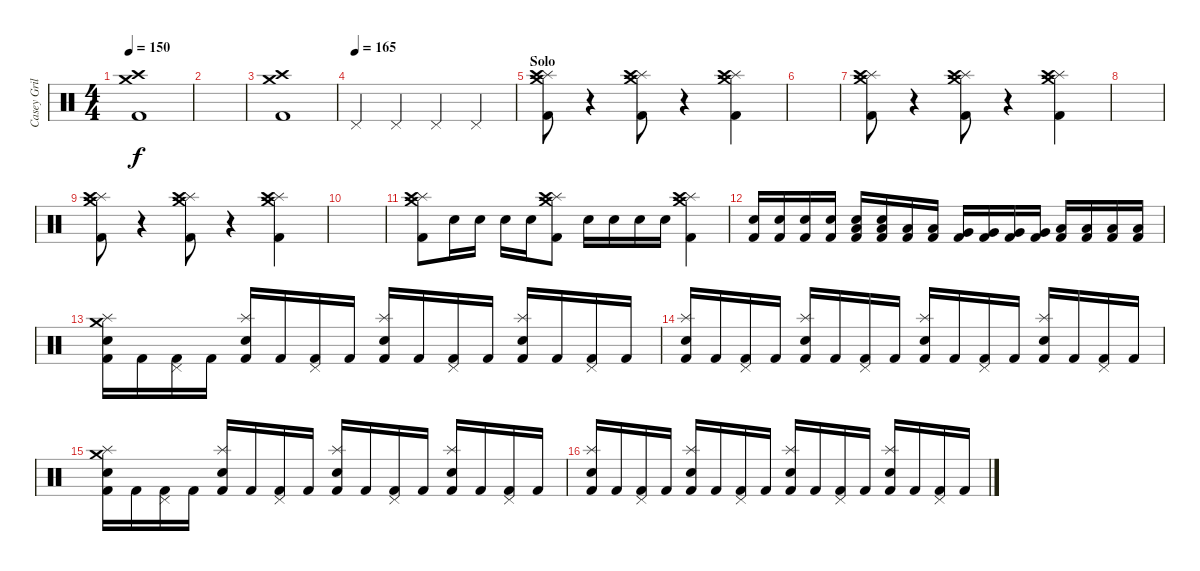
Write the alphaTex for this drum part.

\track ("Casey Grillo" "Casey Gril") {instrument percussion}
\staff {score}
\articulation defaults
\ts (4 4)
\tempo 150
\clef neutral
\ks c
("Crash high (hit)" "Crash medium (hit)" "Kick (hit) 2").1{dy f} |
|
("Crash high (hit)" "Crash medium (hit)" "Kick (hit) 2").1 |
\tempo (165)
"Pedal Hi-Hat (hit)".4 "Pedal Hi-Hat (hit)".4 "Pedal Hi-Hat (hit)".4 "Pedal Hi-Hat (hit)".4 |
\section ("" "Solo")
("Splash (hit)" "Crash high (hit)" "Crash medium (hit)" "Kick (hit) 2").8 r.4 ("Splash (hit)" "Crash high (hit)" "Crash medium (hit)" "Kick (hit) 2").8 r.4 ("Splash (hit)" "Crash high (hit)" "Crash medium (hit)" "Kick (hit) 2").4 |
|
("Splash (hit)" "Crash high (hit)" "Crash medium (hit)" "Kick (hit) 2").8 r.4 ("Splash (hit)" "Crash high (hit)" "Crash medium (hit)" "Kick (hit) 2").8 r.4 ("Splash (hit)" "Crash high (hit)" "Crash medium (hit)" "Kick (hit) 2").4 |
|
("Splash (hit)" "Crash high (hit)" "Crash medium (hit)" "Kick (hit) 2").8 r.4 ("Splash (hit)" "Crash high (hit)" "Crash medium (hit)" "Kick (hit) 2").8 r.4 ("Splash (hit)" "Crash high (hit)" "Crash medium (hit)" "Kick (hit) 2").4 |
|
("Splash (hit)" "Crash high (hit)" "Crash medium (hit)" "Kick (hit) 2").8 "Electric Snare (hit)".16 "Electric Snare (hit)".16 "Electric Snare (hit)".16 "Electric Snare (hit)".16 ("Splash (hit)" "Crash high (hit)" "Crash medium (hit)" "Kick (hit) 2").8 "Electric Snare (hit)".16 "Electric Snare (hit)".16 "Electric Snare (hit)".16 "Electric Snare (hit)".16 ("Splash (hit)" "Crash high (hit)" "Crash medium (hit)" "Kick (hit) 2").4 |
("Electric Snare (hit)" "Kick (hit) 2").16 ("Electric Snare (hit)" "Kick (hit) 2").16 ("Electric Snare (hit)" "Kick (hit) 2").16 ("Electric Snare (hit)" "Kick (hit) 2").16 ("Electric Snare (hit)" "Low Tom (hit)" "Kick (hit) 2").16 ("Electric Snare (hit)" "Low Tom (hit)" "Kick (hit) 2").16 ("Low Tom (hit)" "Kick (hit) 2").16 ("Low Tom (hit)" "Kick (hit) 2").16 ("Very Low Tom (hit)" "Kick (hit) 2").16 ("Very Low Tom (hit)" "Kick (hit) 2").16 ("Very Low Tom (hit)" "Kick (hit) 2").16 ("Very Low Tom (hit)" "Kick (hit) 2").16 ("Low Floor Tom (hit)" "Kick (hit) 2").16 ("Low Floor Tom (hit)" "Kick (hit) 2").16 ("Low Floor Tom (hit)" "Kick (hit) 2").16 ("Low Floor Tom (hit)" "Kick (hit) 2").16 |
("Electric Snare (hit)" "Splash (hit)" "Crash medium (hit)" "Kick (hit) 2").16 "Kick (hit) 2".16 ("Pedal Hi-Hat (hit)" "Kick (hit) 2").16 "Kick (hit) 2".16 ("Electric Snare (hit)" "Splash (hit)" "Kick (hit) 2").16 "Kick (hit) 2".16 ("Pedal Hi-Hat (hit)" "Kick (hit) 2").16 "Kick (hit) 2".16 ("Electric Snare (hit)" "Splash (hit)" "Kick (hit) 2").16 "Kick (hit) 2".16 ("Pedal Hi-Hat (hit)" "Kick (hit) 2").16 "Kick (hit) 2".16 ("Electric Snare (hit)" "Splash (hit)" "Kick (hit) 2").16 "Kick (hit) 2".16 ("Pedal Hi-Hat (hit)" "Kick (hit) 2").16 "Kick (hit) 2".16 |
("Electric Snare (hit)" "Splash (hit)" "Kick (hit) 2").16 "Kick (hit) 2".16 ("Pedal Hi-Hat (hit)" "Kick (hit) 2").16 "Kick (hit) 2".16 ("Electric Snare (hit)" "Splash (hit)" "Kick (hit) 2").16 "Kick (hit) 2".16 ("Pedal Hi-Hat (hit)" "Kick (hit) 2").16 "Kick (hit) 2".16 ("Electric Snare (hit)" "Splash (hit)" "Kick (hit) 2").16 "Kick (hit) 2".16 ("Pedal Hi-Hat (hit)" "Kick (hit) 2").16 "Kick (hit) 2".16 ("Electric Snare (hit)" "Splash (hit)" "Kick (hit) 2").16 "Kick (hit) 2".16 ("Pedal Hi-Hat (hit)" "Kick (hit) 2").16 "Kick (hit) 2".16 |
("Electric Snare (hit)" "Splash (hit)" "Crash medium (hit)" "Kick (hit) 2").16 "Kick (hit) 2".16 ("Pedal Hi-Hat (hit)" "Kick (hit) 2").16 "Kick (hit) 2".16 ("Electric Snare (hit)" "Splash (hit)" "Kick (hit) 2").16 "Kick (hit) 2".16 ("Pedal Hi-Hat (hit)" "Kick (hit) 2").16 "Kick (hit) 2".16 ("Electric Snare (hit)" "Splash (hit)" "Kick (hit) 2").16 "Kick (hit) 2".16 ("Pedal Hi-Hat (hit)" "Kick (hit) 2").16 "Kick (hit) 2".16 ("Electric Snare (hit)" "Splash (hit)" "Kick (hit) 2").16 "Kick (hit) 2".16 ("Pedal Hi-Hat (hit)" "Kick (hit) 2").16 "Kick (hit) 2".16 |
("Electric Snare (hit)" "Splash (hit)" "Kick (hit) 2").16 "Kick (hit) 2".16 ("Pedal Hi-Hat (hit)" "Kick (hit) 2").16 "Kick (hit) 2".16 ("Electric Snare (hit)" "Splash (hit)" "Kick (hit) 2").16 "Kick (hit) 2".16 ("Pedal Hi-Hat (hit)" "Kick (hit) 2").16 "Kick (hit) 2".16 ("Electric Snare (hit)" "Splash (hit)" "Kick (hit) 2").16 "Kick (hit) 2".16 ("Pedal Hi-Hat (hit)" "Kick (hit) 2").16 "Kick (hit) 2".16 ("Electric Snare (hit)" "Splash (hit)" "Kick (hit) 2").16 "Kick (hit) 2".16 ("Pedal Hi-Hat (hit)" "Kick (hit) 2").16 "Kick (hit) 2".16
